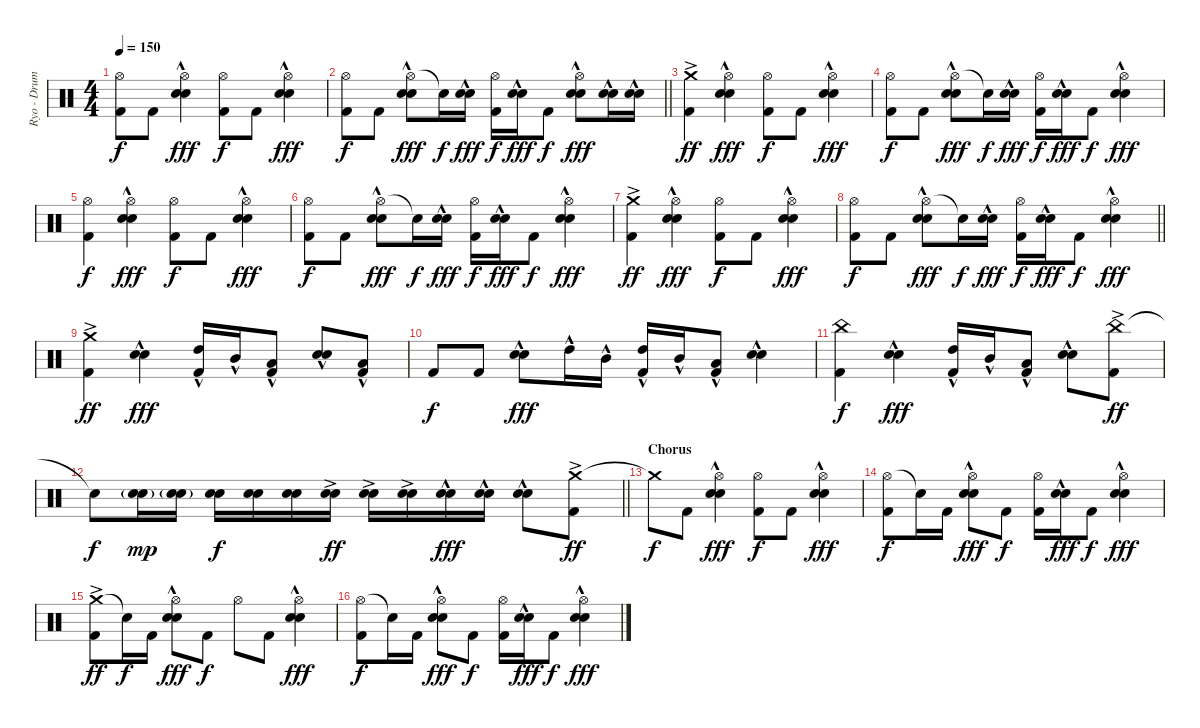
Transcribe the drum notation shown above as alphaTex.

\track ("Ryo - Drums" "Ryo - Drum") {instrument percussion}
\staff {score}
\articulation defaults
\ts (4 4)
\tempo 150
\clef neutral
\ks c
("Hi-Hat (open)" "Kick (hit) 2").8{dy f} "Kick (hit) 2".8 ("Hi-Hat (open)" "Electric Snare (hit)"{hac} "Snare (hit) 2"{hac}).4{dy fff} ("Hi-Hat (open)" "Kick (hit) 2").8{dy f} "Kick (hit) 2".8 ("Hi-Hat (open)" "Electric Snare (hit)"{hac} "Snare (hit) 2"{hac}).4{dy fff} |
\barLineRight lightlight
("Hi-Hat (open)" "Kick (hit) 2").8{dy f} "Kick (hit) 2".8 ("Hi-Hat (open)" "Electric Snare (hit)"{hac} "Snare (hit) 2"{hac}).8{dy fff} "Snare (hit)"{t}.16{dy f} ("Electric Snare (hit)"{hac} "Snare (hit) 2"{hac}).16{dy fff} ("Hi-Hat (open)" "Kick (hit) 2").16{dy f} ("Electric Snare (hit)"{hac} "Snare (hit) 2"{hac}).16{dy fff} "Kick (hit) 2".8{dy f} ("Hi-Hat (open)" "Electric Snare (hit)"{hac} "Snare (hit) 2"{hac}).8{dy fff} ("Electric Snare (hit)"{hac} "Snare (hit) 2"{hac}).16 ("Electric Snare (hit)"{hac} "Snare (hit) 2"{hac}).16 |
\section ("" "")
("Crash medium (hit)"{ac} "Kick (hit) 2").4{dy ff} ("Hi-Hat (open)" "Electric Snare (hit)"{hac} "Snare (hit) 2"{hac}).4{dy fff} ("Hi-Hat (open)" "Kick (hit) 2").8{dy f} "Kick (hit) 2".8 ("Hi-Hat (open)" "Electric Snare (hit)"{hac} "Snare (hit) 2"{hac}).4{dy fff} |
("Hi-Hat (open)" "Kick (hit) 2").8{dy f} "Kick (hit) 2".8 ("Hi-Hat (open)" "Electric Snare (hit)"{hac} "Snare (hit) 2"{hac}).8{dy fff} "Snare (hit)"{t}.16{dy f} ("Electric Snare (hit)"{hac} "Snare (hit) 2"{hac}).16{dy fff} ("Hi-Hat (open)" "Kick (hit) 2").16{dy f} ("Electric Snare (hit)"{hac} "Snare (hit) 2"{hac}).16{dy fff} "Kick (hit) 2".8{dy f} ("Hi-Hat (open)" "Electric Snare (hit)"{hac} "Snare (hit) 2"{hac}).4{dy fff} |
("Hi-Hat (open)" "Kick (hit) 2").4{dy f} ("Hi-Hat (open)" "Electric Snare (hit)"{hac} "Snare (hit) 2"{hac}).4{dy fff} ("Hi-Hat (open)" "Kick (hit) 2").8{dy f} "Kick (hit) 2".8 ("Hi-Hat (open)" "Electric Snare (hit)"{hac} "Snare (hit) 2"{hac}).4{dy fff} |
("Hi-Hat (open)" "Kick (hit) 2").8{dy f} "Kick (hit) 2".8 ("Hi-Hat (open)" "Electric Snare (hit)"{hac} "Snare (hit) 2"{hac}).8{dy fff} "Snare (hit)"{t}.16{dy f} ("Electric Snare (hit)"{hac} "Snare (hit) 2"{hac}).16{dy fff} ("Hi-Hat (open)" "Kick (hit) 2").16{dy f} ("Electric Snare (hit)"{hac} "Snare (hit) 2"{hac}).16{dy fff} "Kick (hit) 2".8{dy f} ("Hi-Hat (open)" "Electric Snare (hit)"{hac} "Snare (hit) 2"{hac}).4{dy fff} |
("Crash medium (hit)"{ac} "Kick (hit) 2").4{dy ff} ("Hi-Hat (open)" "Electric Snare (hit)"{hac} "Snare (hit) 2"{hac}).4{dy fff} ("Hi-Hat (open)" "Kick (hit) 2").8{dy f} "Kick (hit) 2".8 ("Hi-Hat (open)" "Electric Snare (hit)"{hac} "Snare (hit) 2"{hac}).4{dy fff} |
\barLineRight lightlight
("Hi-Hat (open)" "Kick (hit) 2").8{dy f} "Kick (hit) 2".8 ("Hi-Hat (open)" "Electric Snare (hit)"{hac} "Snare (hit) 2"{hac}).8{dy fff} "Snare (hit)"{t}.16{dy f} ("Electric Snare (hit)"{hac} "Snare (hit) 2"{hac}).16{dy fff} ("Hi-Hat (open)" "Kick (hit) 2").16{dy f} ("Electric Snare (hit)"{hac} "Snare (hit) 2"{hac}).16{dy fff} "Kick (hit) 2".8{dy f} ("Hi-Hat (open)" "Electric Snare (hit)"{hac} "Snare (hit) 2"{hac}).4{dy fff} |
("Crash medium (hit)"{ac} "Kick (hit) 2").4{dy ff} ("Electric Snare (hit)"{hac} "Snare (hit) 2"{hac}).4{dy fff} ("High Tom (hit)"{hac} "Kick (hit) 2").16 "Mid Tom (hit)"{hac}.16 ("Low Tom (hit)"{hac} "Kick (hit) 2").8 ("Electric Snare (hit)"{hac} "Snare (hit) 2"{hac}).8 ("Low Tom (hit)"{hac} "Kick (hit) 2").8 |
"Kick (hit) 2".8{dy f} "Kick (hit) 2".8 ("Electric Snare (hit)"{hac} "Snare (hit) 2"{hac}).8{dy fff} "High Tom (hit)"{hac}.16 "Mid Tom (hit)"{hac}.16 ("High Tom (hit)"{hac} "Kick (hit) 2").16 "Mid Tom (hit)"{hac}.16 ("Low Tom (hit)"{hac} "Kick (hit) 2").8 ("Electric Snare (hit)"{hac} "Snare (hit) 2"{hac}).4 |
("China (hit)" "Kick (hit) 2").4{dy f} ("Electric Snare (hit)"{hac} "Snare (hit) 2"{hac}).4{dy fff} ("High Tom (hit)"{hac} "Kick (hit) 2").16 "Mid Tom (hit)"{hac}.16 ("Low Tom (hit)"{hac} "Kick (hit) 2").8 ("Electric Snare (hit)"{hac} "Snare (hit) 2"{hac}).8 ("China (hit)"{ac} "Kick (hit) 2").8{dy ff} |
\barLineRight lightlight "Snare (hit)"{t}.8{dy f}
("Electric Snare (hit)"{g} "Snare (hit) 2"{g}).16{dy mp} ("Electric Snare (hit)"{g} "Snare (hit) 2"{g}).16 ("Electric Snare (hit)" "Snare (hit) 2").16{dy f} ("Electric Snare (hit)" "Snare (hit) 2").16 ("Electric Snare (hit)" "Snare (hit) 2").16 ("Electric Snare (hit)"{ac} "Snare (hit) 2"{ac}).16{dy ff} ("Electric Snare (hit)"{ac} "Snare (hit) 2"{ac}).16 ("Electric Snare (hit)"{ac} "Snare (hit) 2"{ac}).16 ("Electric Snare (hit)"{hac} "Snare (hit) 2"{hac}).16{dy fff} ("Electric Snare (hit)"{hac} "Snare (hit) 2"{hac}).16 ("Electric Snare (hit)"{hac} "Snare (hit) 2"{hac}).8 ("Crash medium (hit)"{ac} "Kick (hit) 2").8{dy ff} |
\section ("" "Chorus")
"Crash medium (hit)"{t}.8{dy f} "Kick (hit) 2".8 ("Hi-Hat (open)" "Electric Snare (hit)"{hac} "Snare (hit) 2"{hac}).4{dy fff} ("Hi-Hat (open)" "Kick (hit) 2").8{dy f} "Kick (hit) 2".8 ("Hi-Hat (open)" "Electric Snare (hit)"{hac} "Snare (hit) 2"{hac}).4{dy fff} |
("Hi-Hat (open)" "Kick (hit) 2").8{dy f} "Snare (hit)"{t}.16 "Kick (hit) 2".16 ("Hi-Hat (open)" "Electric Snare (hit)"{hac} "Snare (hit) 2"{hac}).8{dy fff} "Kick (hit) 2".8{dy f} ("Hi-Hat (open)" "Kick (hit) 2").16 ("Electric Snare (hit)"{hac} "Snare (hit) 2"{hac}).16{dy fff} "Kick (hit) 2".8{dy f} ("Hi-Hat (open)" "Electric Snare (hit)"{hac} "Snare (hit) 2"{hac}).4{dy fff} |
("Crash medium (hit)"{ac} "Kick (hit) 2").8{dy ff} "Snare (hit)"{t}.16{dy f} "Kick (hit) 2".16 ("Hi-Hat (open)" "Electric Snare (hit)"{hac} "Snare (hit) 2"{hac}).8{dy fff} "Kick (hit) 2".8{dy f} "Hi-Hat (open)".8 "Kick (hit) 2".8 ("Hi-Hat (open)" "Electric Snare (hit)"{hac} "Snare (hit) 2"{hac}).4{dy fff} |
("Hi-Hat (open)" "Kick (hit) 2").8{dy f} "Snare (hit)"{t}.16 "Kick (hit) 2".16 ("Hi-Hat (open)" "Electric Snare (hit)"{hac} "Snare (hit) 2"{hac}).8{dy fff} "Kick (hit) 2".8{dy f} ("Hi-Hat (open)" "Kick (hit) 2").16 ("Electric Snare (hit)"{hac} "Snare (hit) 2"{hac}).16{dy fff} "Kick (hit) 2".8{dy f} ("Hi-Hat (open)" "Electric Snare (hit)"{hac} "Snare (hit) 2"{hac}).4{dy fff}
